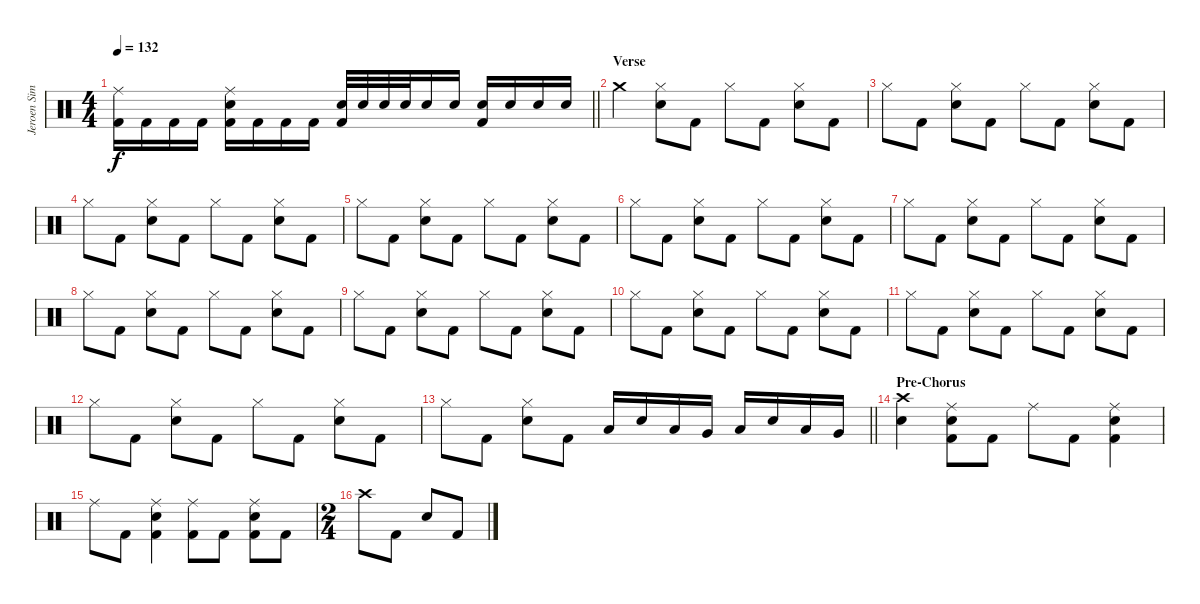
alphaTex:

\track ("Jeroen Simons" "Jeroen Sim") {instrument percussion}
\staff {score}
\articulation defaults
\ts (4 4)
\tempo 132
\clef neutral
\barLineRight lightlight
\ks c
("Ride (middle)" "Kick (hit) 2").16{dy f} "Kick (hit) 2".16 "Kick (hit) 2".16 "Kick (hit) 2".16 ("Ride (middle)" "Electric Snare (hit)" "Kick (hit) 2").16 "Kick (hit) 2".16 "Kick (hit) 2".16 "Kick (hit) 2".16 ("Electric Snare (hit)" "Kick (hit) 2").32 "Electric Snare (hit)".32 "Electric Snare (hit)".32 "Electric Snare (hit)".32 "Electric Snare (hit)".16 "Electric Snare (hit)".16 ("Electric Snare (hit)" "Kick (hit) 2").16 "Electric Snare (hit)".16 "Electric Snare (hit)".16 "Electric Snare (hit)".16 |
\section ("" "Verse")
"Crash medium (hit)".4 ("Hi-Hat (closed)" "Electric Snare (hit)").8 "Kick (hit) 2".8 "Hi-Hat (closed)".8 "Kick (hit) 2".8 ("Hi-Hat (closed)" "Electric Snare (hit)").8 "Kick (hit) 2".8 |
"Hi-Hat (closed)".8 "Kick (hit) 2".8 ("Hi-Hat (closed)" "Electric Snare (hit)").8 "Kick (hit) 2".8 "Hi-Hat (closed)".8 "Kick (hit) 2".8 ("Hi-Hat (closed)" "Electric Snare (hit)").8 "Kick (hit) 2".8 |
"Hi-Hat (closed)".8 "Kick (hit) 2".8 ("Hi-Hat (closed)" "Electric Snare (hit)").8 "Kick (hit) 2".8 "Hi-Hat (closed)".8 "Kick (hit) 2".8 ("Hi-Hat (closed)" "Electric Snare (hit)").8 "Kick (hit) 2".8 |
"Hi-Hat (closed)".8 "Kick (hit) 2".8 ("Hi-Hat (closed)" "Electric Snare (hit)").8 "Kick (hit) 2".8 "Hi-Hat (closed)".8 "Kick (hit) 2".8 ("Hi-Hat (closed)" "Electric Snare (hit)").8 "Kick (hit) 2".8 |
"Hi-Hat (closed)".8 "Kick (hit) 2".8 ("Hi-Hat (closed)" "Electric Snare (hit)").8 "Kick (hit) 2".8 "Hi-Hat (closed)".8 "Kick (hit) 2".8 ("Hi-Hat (closed)" "Electric Snare (hit)").8 "Kick (hit) 2".8 |
"Hi-Hat (closed)".8 "Kick (hit) 2".8 ("Hi-Hat (closed)" "Electric Snare (hit)").8 "Kick (hit) 2".8 "Hi-Hat (closed)".8 "Kick (hit) 2".8 ("Hi-Hat (closed)" "Electric Snare (hit)").8 "Kick (hit) 2".8 |
"Hi-Hat (closed)".8 "Kick (hit) 2".8 ("Hi-Hat (closed)" "Electric Snare (hit)").8 "Kick (hit) 2".8 "Hi-Hat (closed)".8 "Kick (hit) 2".8 ("Hi-Hat (closed)" "Electric Snare (hit)").8 "Kick (hit) 2".8 |
"Hi-Hat (closed)".8 "Kick (hit) 2".8 ("Hi-Hat (closed)" "Electric Snare (hit)").8 "Kick (hit) 2".8 "Hi-Hat (closed)".8 "Kick (hit) 2".8 ("Hi-Hat (closed)" "Electric Snare (hit)").8 "Kick (hit) 2".8 |
"Hi-Hat (closed)".8 "Kick (hit) 2".8 ("Hi-Hat (closed)" "Electric Snare (hit)").8 "Kick (hit) 2".8 "Hi-Hat (closed)".8 "Kick (hit) 2".8 ("Hi-Hat (closed)" "Electric Snare (hit)").8 "Kick (hit) 2".8 |
"Hi-Hat (closed)".8 "Kick (hit) 2".8 ("Hi-Hat (closed)" "Electric Snare (hit)").8 "Kick (hit) 2".8 "Hi-Hat (closed)".8 "Kick (hit) 2".8 ("Hi-Hat (closed)" "Electric Snare (hit)").8 "Kick (hit) 2".8 |
"Hi-Hat (closed)".8 "Kick (hit) 2".8 ("Hi-Hat (closed)" "Electric Snare (hit)").8 "Kick (hit) 2".8 "Hi-Hat (closed)".8 "Kick (hit) 2".8 ("Hi-Hat (closed)" "Electric Snare (hit)").8 "Kick (hit) 2".8 |
\barLineRight lightlight "Hi-Hat (closed)".8 "Kick (hit) 2".8
("Hi-Hat (closed)" "Electric Snare (hit)").8 "Kick (hit) 2".8 "Low Tom (hit)".16 "Electric Snare (hit)".16 "Low Tom (hit)".16 "Very Low Tom (hit)".16 "Low Tom (hit)".16 "Electric Snare (hit)".16 "Low Tom (hit)".16 "Very Low Tom (hit)".16 |
\section ("" "Pre-Chorus")
("Crash high (hit)" "Electric Snare (hit)").4 ("Ride (middle)" "Electric Snare (hit)" "Kick (hit) 2").8 "Kick (hit) 2".8 "Ride (middle)".8 "Kick (hit) 2".8 ("Ride (middle)" "Electric Snare (hit)" "Kick (hit) 2").4 |
"Ride (middle)".8 "Kick (hit) 2".8 ("Ride (middle)" "Electric Snare (hit)" "Kick (hit) 2").4 ("Ride (middle)" "Kick (hit) 2").8 "Kick (hit) 2".8 ("Ride (middle)" "Electric Snare (hit)" "Kick (hit) 2").8 "Kick (hit) 2".8 |
\ts (2 4)
"Crash high (hit)".8 "Kick (hit) 2".8 "Electric Snare (hit)".8 "Kick (hit) 2".8
